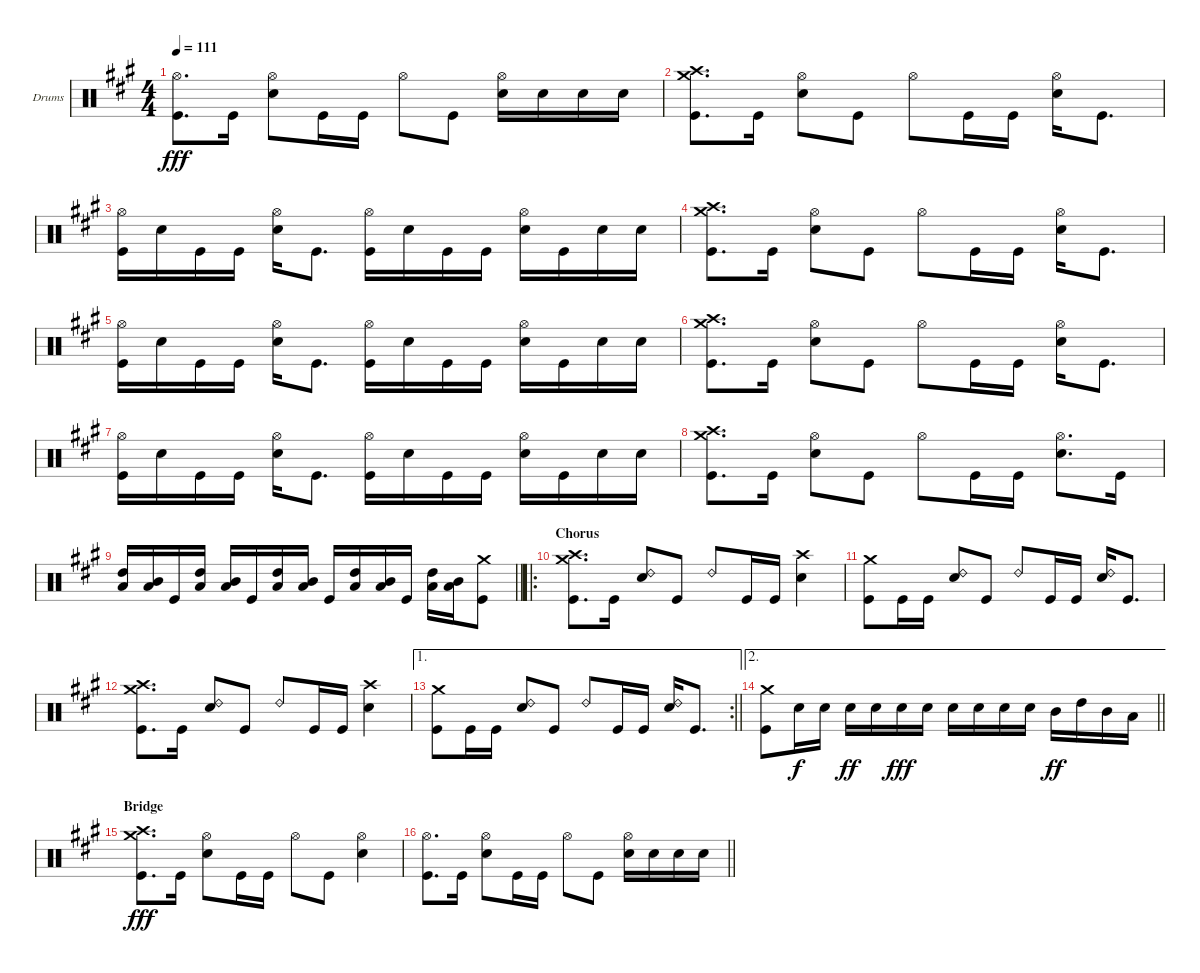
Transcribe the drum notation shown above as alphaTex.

\bracketExtendMode groupsimilarinstruments
\firstSystemTrackNameOrientation horizontal
\otherSystemsTrackNameOrientation horizontal
\track ("Drumkit" "Drums") {instrument percussion}
\staff {score}
\articulation defaults
\ts (4 4)
\tempo 111
\clef neutral
\scale
0.354276
\ks a
("Hi-Hat (open)" "Kick (hit)").8{d dy fff} "Kick (hit)".16 ("Hi-Hat (open)" "Snare (hit) 2").8 "Kick (hit)".16 "Kick (hit)".16 "Hi-Hat (open)".8 "Kick (hit)".8 ("Hi-Hat (open)" "Snare (hit) 2").16 "Snare (hit) 2".16 "Snare (hit) 2".16 "Snare (hit) 2".16 |
\scale
0.322862 ("Crash high (hit)" "Crash medium (hit)" "Kick (hit)").8{d} "Kick (hit)".16 ("Hi-Hat (open)" "Snare (hit) 2").8 "Kick (hit)".8 "Hi-Hat (open)".8 "Kick (hit)".16 "Kick (hit)".16 ("Hi-Hat (open)" "Snare (hit) 2").16 "Kick (hit)".8{d} |
\scale
0.356589 ("Hi-Hat (open)" "Kick (hit)").16 "Snare (hit) 2".16 "Kick (hit)".16 "Kick (hit)".16 ("Hi-Hat (open)" "Snare (hit) 2").16 "Kick (hit)".8{d} ("Hi-Hat (open)" "Kick (hit)").16 "Snare (hit) 2".16 "Kick (hit)".16 "Kick (hit)".16 ("Hi-Hat (open)" "Snare (hit) 2").16 "Kick (hit)".16 "Snare (hit) 2".16 "Snare (hit) 2".16 |
\scale
0.286822 ("Crash high (hit)" "Crash medium (hit)" "Kick (hit)").8{d} "Kick (hit)".16 ("Hi-Hat (open)" "Snare (hit) 2").8 "Kick (hit)".8 "Hi-Hat (open)".8 "Kick (hit)".16 "Kick (hit)".16 ("Hi-Hat (open)" "Snare (hit) 2").16 "Kick (hit)".8{d} |
\scale
0.356589 ("Hi-Hat (open)" "Kick (hit)").16 "Snare (hit) 2".16 "Kick (hit)".16 "Kick (hit)".16 ("Hi-Hat (open)" "Snare (hit) 2").16 "Kick (hit)".8{d} ("Hi-Hat (open)" "Kick (hit)").16 "Snare (hit) 2".16 "Kick (hit)".16 "Kick (hit)".16 ("Hi-Hat (open)" "Snare (hit) 2").16 "Kick (hit)".16 "Snare (hit) 2".16 "Snare (hit) 2".16 |
\scale
0.308333 ("Crash high (hit)" "Crash medium (hit)" "Kick (hit)").8{d} "Kick (hit)".16 ("Hi-Hat (open)" "Snare (hit) 2").8 "Kick (hit)".8 "Hi-Hat (open)".8 "Kick (hit)".16 "Kick (hit)".16 ("Hi-Hat (open)" "Snare (hit) 2").16 "Kick (hit)".8{d} |
\scale
0.383333 ("Hi-Hat (open)" "Kick (hit)").16 "Snare (hit) 2".16 "Kick (hit)".16 "Kick (hit)".16 ("Hi-Hat (open)" "Snare (hit) 2").16 "Kick (hit)".8{d} ("Hi-Hat (open)" "Kick (hit)").16 "Snare (hit) 2".16 "Kick (hit)".16 "Kick (hit)".16 ("Hi-Hat (open)" "Snare (hit) 2").16 "Kick (hit)".16 "Snare (hit) 2".16 "Snare (hit) 2".16 |
\scale
0.308333 ("Crash high (hit)" "Crash medium (hit)" "Kick (hit)").8{d} "Kick (hit)".16 ("Hi-Hat (open)" "Snare (hit) 2").8 "Kick (hit)".8 "Hi-Hat (open)".8 "Kick (hit)".16 "Kick (hit)".16 ("Hi-Hat (open)" "Snare (hit) 2").8{d} "Kick (hit)".16 |
\scale
0.412943
\barLineRight lightlight
("Low Tom (hit)" "High Tom (hit)").16 ("Low Tom (hit)" "Mid Tom (hit)").16 "Kick (hit)".16 ("Low Tom (hit)" "High Tom (hit)").16 ("Low Tom (hit)" "Mid Tom (hit)").16 "Kick (hit)".16 ("Low Tom (hit)" "High Tom (hit)").16 ("Low Tom (hit)" "Mid Tom (hit)").16 "Kick (hit)".16 ("Low Tom (hit)" "High Tom (hit)").16 ("Low Tom (hit)" "Mid Tom (hit)").16 "Kick (hit)".16 ("Low Tom (hit)" "High Tom (hit)").16 ("Low Tom (hit)" "Mid Tom (hit)").16 ("Crash medium (hit)" "Kick (hit)").8 |
\ro
\section ("" "Chorus")
\scale
0.288136 ("Crash high (hit)" "Crash medium (hit)" "Kick (hit)").8{d} "Kick (hit)".16 ("Snare (hit) 2" "Ride (bell) 2").8 "Kick (hit)".8 "Ride (bell) 2".8 "Kick (hit)".16 "Kick (hit)".16 ("Crash high (hit)" "Snare (hit) 2").4 |
\scale
0.298921 ("Crash medium (hit)" "Kick (hit)").8 "Kick (hit)".16 "Kick (hit)".16 ("Snare (hit) 2" "Ride (bell) 2").8 "Kick (hit)".8 "Ride (bell) 2".8 "Kick (hit)".16 "Kick (hit)".16 ("Snare (hit) 2" "Ride (bell) 2").16 "Kick (hit)".8{d} |
\scale
0.285016 ("Crash high (hit)" "Crash medium (hit)" "Kick (hit)").8{d} "Kick (hit)".16 ("Snare (hit) 2" "Ride (bell) 2").8 "Kick (hit)".8 "Ride (bell) 2".8 "Kick (hit)".16 "Kick (hit)".16 ("Crash high (hit)" "Snare (hit) 2").4 |
\ae 1
\rc 2
\scale
0.325733
\barLineRight lightlight
("Crash medium (hit)" "Kick (hit)").8 "Kick (hit)".16 "Kick (hit)".16 ("Ride (bell) 2" "Snare (hit) 2").8 "Kick (hit)".8 "Ride (bell) 2".8 "Kick (hit)".16 "Kick (hit)".16 ("Snare (hit) 2" "Ride (bell) 2").16 "Kick (hit)".8{d} |
\ae 2
\scale
0.389251
\barLineRight lightlight
("Crash medium (hit)" "Kick (hit)").8 "Snare (hit) 2".16{dy f} "Snare (hit) 2".16 "Snare (hit) 2".16{dy ff} "Snare (hit) 2".16 "Snare (hit) 2".16{dy fff} "Snare (hit) 2".16 "Snare (hit) 2".16 "Snare (hit) 2".16 "Snare (hit) 2".16 "Snare (hit) 2".16 "Mid Tom (hit)".16{dy ff} "High Tom (hit)".16 "Mid Tom (hit)".16 "Low Tom (hit)".16 |
\section ("" "Bridge")
\scale
0.305944 ("Crash high (hit)" "Crash medium (hit)" "Kick (hit)").8{d dy fff} "Kick (hit)".16 ("Hi-Hat (open)" "Snare (hit) 2").8 "Kick (hit)".16 "Kick (hit)".16 "Hi-Hat (open)".8 "Kick (hit)".8 ("Hi-Hat (open)" "Snare (hit) 2").4 |
\scale
0.354895
\barLineRight lightlight
("Hi-Hat (open)" "Kick (hit)").8{d} "Kick (hit)".16 ("Hi-Hat (open)" "Snare (hit) 2").8 "Kick (hit)".16 "Kick (hit)".16 "Hi-Hat (open)".8 "Kick (hit)".8 ("Hi-Hat (open)" "Snare (hit) 2").16 "Snare (hit) 2".16 "Snare (hit) 2".16 "Snare (hit) 2".16
